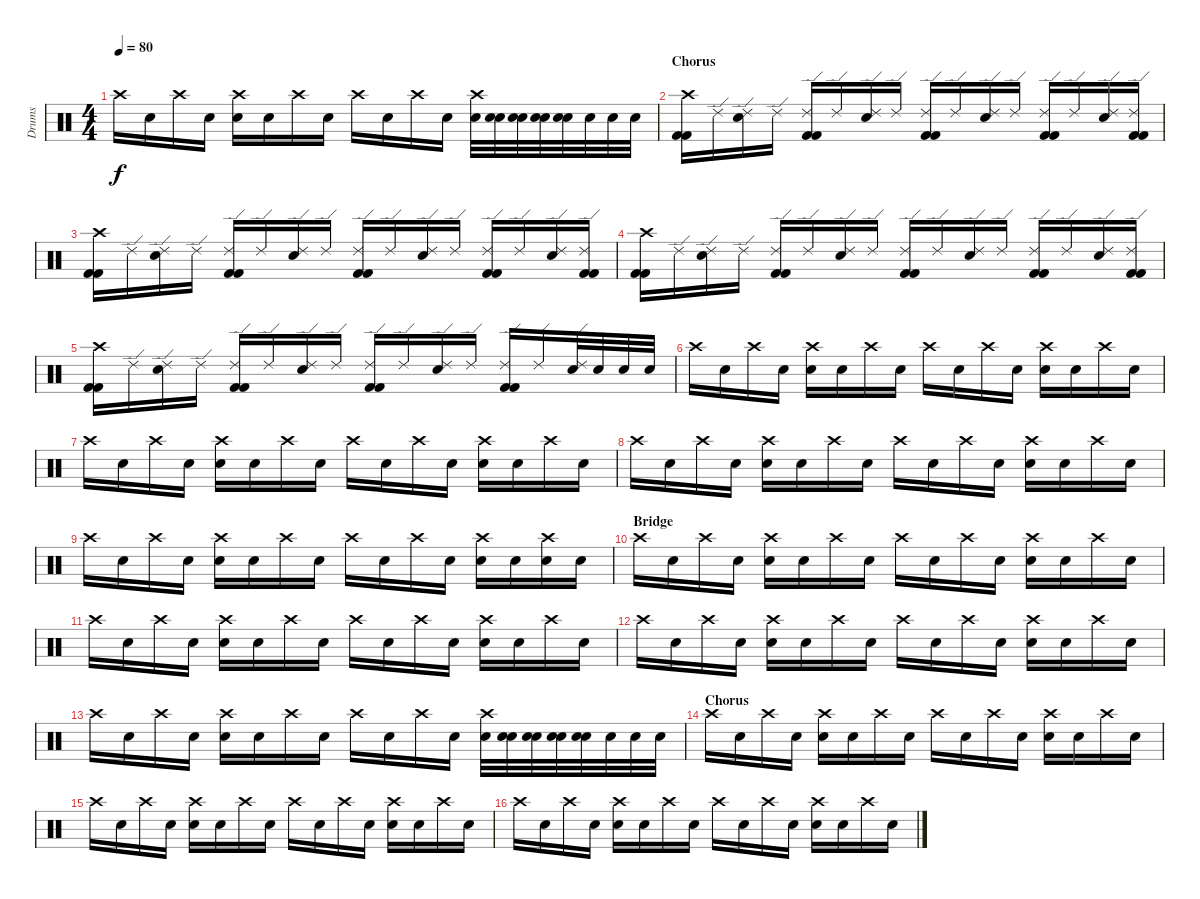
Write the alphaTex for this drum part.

\track ("Drums" "Drums") {instrument percussion}
\staff {score}
\articulation defaults
\ts (4 4)
\tempo 80
\clef neutral
\ks c "Crash high (hit)".16{dy f} "Snare (hit)"{x}.16 "Crash high (hit)".16 "Snare (hit)"{x}.16
("Crash high (hit)" "Electric Snare (hit)").16 "Snare (hit)"{x}.16 "Crash high (hit)".16 "Snare (hit)"{x}.16 "Crash high (hit)".16 "Snare (hit)"{x}.16 "Crash high (hit)".16 "Snare (hit)"{x}.16 ("Crash high (hit)" "Electric Snare (hit)").32 ("Snare (hit)"{x} "Electric Snare (hit)").32 ("Snare (hit)"{x} "Electric Snare (hit)").32 ("Snare (hit)"{x} "Electric Snare (hit)").32 ("Snare (hit)"{x} "Electric Snare (hit)").32 "Electric Snare (hit)".32 "Electric Snare (hit)".32 "Electric Snare (hit)".32 |
\section ("" "Chorus")
("Crash high (hit)" "Kick (hit) 2" "Kick (hit) 2").16 "Ride (edge) 2".16 ("Ride (edge) 2" "Electric Snare (hit)").16 "Ride (edge) 2".16 ("Ride (edge) 2" "Kick (hit) 2" "Kick (hit) 2").16 "Ride (edge) 2".16 ("Ride (edge) 2" "Electric Snare (hit)").16 "Ride (edge) 2".16 ("Ride (edge) 2" "Kick (hit) 2" "Kick (hit) 2").16 "Ride (edge) 2".16 ("Ride (edge) 2" "Electric Snare (hit)").16 "Ride (edge) 2".16 ("Ride (edge) 2" "Kick (hit) 2" "Kick (hit) 2").16 "Ride (edge) 2".16 ("Ride (edge) 2" "Electric Snare (hit)").16 ("Ride (edge) 2" "Kick (hit) 2" "Kick (hit) 2").16 |
("Crash high (hit)" "Kick (hit) 2" "Kick (hit) 2").16 "Ride (edge) 2".16 ("Ride (edge) 2" "Electric Snare (hit)").16 "Ride (edge) 2".16 ("Ride (edge) 2" "Kick (hit) 2" "Kick (hit) 2").16 "Ride (edge) 2".16 ("Ride (edge) 2" "Electric Snare (hit)").16 "Ride (edge) 2".16 ("Ride (edge) 2" "Kick (hit) 2" "Kick (hit) 2").16 "Ride (edge) 2".16 ("Ride (edge) 2" "Electric Snare (hit)").16 "Ride (edge) 2".16 ("Ride (edge) 2" "Kick (hit) 2" "Kick (hit) 2").16 "Ride (edge) 2".16 ("Ride (edge) 2" "Electric Snare (hit)").16 ("Ride (edge) 2" "Kick (hit) 2" "Kick (hit) 2").16 |
("Crash high (hit)" "Kick (hit) 2" "Kick (hit) 2").16 "Ride (edge) 2".16 ("Ride (edge) 2" "Electric Snare (hit)").16 "Ride (edge) 2".16 ("Ride (edge) 2" "Kick (hit) 2" "Kick (hit) 2").16 "Ride (edge) 2".16 ("Ride (edge) 2" "Electric Snare (hit)").16 "Ride (edge) 2".16 ("Ride (edge) 2" "Kick (hit) 2" "Kick (hit) 2").16 "Ride (edge) 2".16 ("Ride (edge) 2" "Electric Snare (hit)").16 "Ride (edge) 2".16 ("Ride (edge) 2" "Kick (hit) 2" "Kick (hit) 2").16 "Ride (edge) 2".16 ("Ride (edge) 2" "Electric Snare (hit)").16 ("Ride (edge) 2" "Kick (hit) 2" "Kick (hit) 2").16 |
("Crash high (hit)" "Kick (hit) 2" "Kick (hit) 2").16 "Ride (edge) 2".16 ("Ride (edge) 2" "Electric Snare (hit)").16 "Ride (edge) 2".16 ("Ride (edge) 2" "Kick (hit) 2" "Kick (hit) 2").16 "Ride (edge) 2".16 ("Ride (edge) 2" "Electric Snare (hit)").16 "Ride (edge) 2".16 ("Ride (edge) 2" "Kick (hit) 2" "Kick (hit) 2").16 "Ride (edge) 2".16 ("Ride (edge) 2" "Electric Snare (hit)").16 "Ride (edge) 2".16 ("Ride (edge) 2" "Kick (hit) 2" "Kick (hit) 2").16 "Ride (edge) 2".16 ("Ride (edge) 2" "Electric Snare (hit)").32 "Electric Snare (hit)".32 "Electric Snare (hit)".32 "Electric Snare (hit)".32 |
"Crash high (hit)".16 "Snare (hit)"{x}.16 "Crash high (hit)".16 "Snare (hit)"{x}.16 ("Crash high (hit)" "Electric Snare (hit)").16 "Snare (hit)"{x}.16 "Crash high (hit)".16 "Snare (hit)"{x}.16 "Crash high (hit)".16 "Snare (hit)"{x}.16 "Crash high (hit)".16 "Snare (hit)"{x}.16 ("Crash high (hit)" "Electric Snare (hit)").16 "Snare (hit)"{x}.16 "Crash high (hit)".16 "Snare (hit)"{x}.16 |
"Crash high (hit)".16 "Snare (hit)"{x}.16 "Crash high (hit)".16 "Snare (hit)"{x}.16 ("Crash high (hit)" "Electric Snare (hit)").16 "Snare (hit)"{x}.16 "Crash high (hit)".16 "Snare (hit)"{x}.16 "Crash high (hit)".16 "Snare (hit)"{x}.16 "Crash high (hit)".16 "Snare (hit)"{x}.16 ("Crash high (hit)" "Electric Snare (hit)").16 "Snare (hit)"{x}.16 "Crash high (hit)".16 "Snare (hit)"{x}.16 |
"Crash high (hit)".16 "Snare (hit)"{x}.16 "Crash high (hit)".16 "Snare (hit)"{x}.16 ("Crash high (hit)" "Electric Snare (hit)").16 "Snare (hit)"{x}.16 "Crash high (hit)".16 "Snare (hit)"{x}.16 "Crash high (hit)".16 "Snare (hit)"{x}.16 "Crash high (hit)".16 "Snare (hit)"{x}.16 ("Crash high (hit)" "Electric Snare (hit)").16 "Snare (hit)"{x}.16 "Crash high (hit)".16 "Snare (hit)"{x}.16 |
"Crash high (hit)".16 "Snare (hit)"{x}.16 "Crash high (hit)".16 "Snare (hit)"{x}.16 ("Crash high (hit)" "Electric Snare (hit)").16 "Snare (hit)"{x}.16 "Crash high (hit)".16 "Snare (hit)"{x}.16 "Crash high (hit)".16 "Snare (hit)"{x}.16 "Crash high (hit)".16 "Snare (hit)"{x}.16 ("Crash high (hit)" "Electric Snare (hit)").16 "Snare (hit)"{x}.16 ("Crash high (hit)" "Electric Snare (hit)").16 "Snare (hit)"{x}.16 |
\section ("" "Bridge")
"Crash high (hit)".16 "Snare (hit)"{x}.16 "Crash high (hit)".16 "Snare (hit)"{x}.16 ("Crash high (hit)" "Electric Snare (hit)").16 "Snare (hit)"{x}.16 "Crash high (hit)".16 "Snare (hit)"{x}.16 "Crash high (hit)".16 "Snare (hit)"{x}.16 "Crash high (hit)".16 "Snare (hit)"{x}.16 ("Crash high (hit)" "Electric Snare (hit)").16 "Snare (hit)"{x}.16 "Crash high (hit)".16 "Snare (hit)"{x}.16 |
"Crash high (hit)".16 "Snare (hit)"{x}.16 "Crash high (hit)".16 "Snare (hit)"{x}.16 ("Crash high (hit)" "Electric Snare (hit)").16 "Snare (hit)"{x}.16 "Crash high (hit)".16 "Snare (hit)"{x}.16 "Crash high (hit)".16 "Snare (hit)"{x}.16 "Crash high (hit)".16 "Snare (hit)"{x}.16 ("Crash high (hit)" "Electric Snare (hit)").16 "Snare (hit)"{x}.16 "Crash high (hit)".16 "Snare (hit)"{x}.16 |
"Crash high (hit)".16 "Snare (hit)"{x}.16 "Crash high (hit)".16 "Snare (hit)"{x}.16 ("Crash high (hit)" "Electric Snare (hit)").16 "Snare (hit)"{x}.16 "Crash high (hit)".16 "Snare (hit)"{x}.16 "Crash high (hit)".16 "Snare (hit)"{x}.16 "Crash high (hit)".16 "Snare (hit)"{x}.16 ("Crash high (hit)" "Electric Snare (hit)").16 "Snare (hit)"{x}.16 "Crash high (hit)".16 "Snare (hit)"{x}.16 |
"Crash high (hit)".16 "Snare (hit)"{x}.16 "Crash high (hit)".16 "Snare (hit)"{x}.16 ("Crash high (hit)" "Electric Snare (hit)").16 "Snare (hit)"{x}.16 "Crash high (hit)".16 "Snare (hit)"{x}.16 "Crash high (hit)".16 "Snare (hit)"{x}.16 "Crash high (hit)".16 "Snare (hit)"{x}.16 ("Crash high (hit)" "Electric Snare (hit)").32 ("Snare (hit)"{x} "Electric Snare (hit)").32 ("Snare (hit)"{x} "Electric Snare (hit)").32 ("Snare (hit)"{x} "Electric Snare (hit)").32 ("Snare (hit)"{x} "Electric Snare (hit)").32 "Electric Snare (hit)".32 "Electric Snare (hit)".32 "Electric Snare (hit)".32 |
\section ("" "Chorus")
"Crash high (hit)".16 "Snare (hit)"{x}.16 "Crash high (hit)".16 "Snare (hit)"{x}.16 ("Crash high (hit)" "Electric Snare (hit)").16 "Snare (hit)"{x}.16 "Crash high (hit)".16 "Snare (hit)"{x}.16 "Crash high (hit)".16 "Snare (hit)"{x}.16 "Crash high (hit)".16 "Snare (hit)"{x}.16 ("Crash high (hit)" "Electric Snare (hit)").16 "Snare (hit)"{x}.16 "Crash high (hit)".16 "Snare (hit)"{x}.16 |
"Crash high (hit)".16 "Snare (hit)"{x}.16 "Crash high (hit)".16 "Snare (hit)"{x}.16 ("Crash high (hit)" "Electric Snare (hit)").16 "Snare (hit)"{x}.16 "Crash high (hit)".16 "Snare (hit)"{x}.16 "Crash high (hit)".16 "Snare (hit)"{x}.16 "Crash high (hit)".16 "Snare (hit)"{x}.16 ("Crash high (hit)" "Electric Snare (hit)").16 "Snare (hit)"{x}.16 "Crash high (hit)".16 "Snare (hit)"{x}.16 |
"Crash high (hit)".16 "Snare (hit)"{x}.16 "Crash high (hit)".16 "Snare (hit)"{x}.16 ("Crash high (hit)" "Electric Snare (hit)").16 "Snare (hit)"{x}.16 "Crash high (hit)".16 "Snare (hit)"{x}.16 "Crash high (hit)".16 "Snare (hit)"{x}.16 "Crash high (hit)".16 "Snare (hit)"{x}.16 ("Crash high (hit)" "Electric Snare (hit)").16 "Snare (hit)"{x}.16 "Crash high (hit)".16 "Snare (hit)"{x}.16
